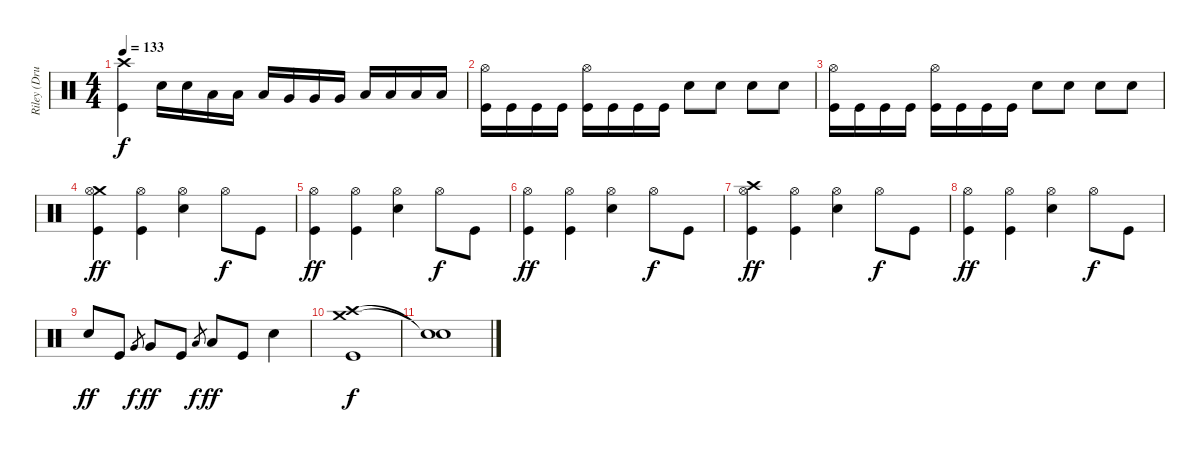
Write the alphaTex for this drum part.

\track ("Riley (Drums)" "Riley (Dru") {instrument percussion}
\staff {score}
\articulation defaults
\ts (4 4)
\tempo 133
\clef neutral
\ks c
("Crash high (hit)" "Kick (hit)").4{dy f} "Electric Snare (hit)".16 "Electric Snare (hit)".16 "Low Tom (hit)".16 "Low Tom (hit)".16 "Low Tom (hit)".16 "Very Low Tom (hit)".16 "Very Low Tom (hit)".16 "Very Low Tom (hit)".16 "Low Floor Tom (hit)".16 "Low Floor Tom (hit)".16 "Low Floor Tom (hit)".16 "Low Floor Tom (hit)".16 |
("Hi-Hat (open)" "Kick (hit)").16 "Kick (hit)".16 "Kick (hit)".16 "Kick (hit)".16 ("Hi-Hat (open)" "Kick (hit)").16 "Kick (hit)".16 "Kick (hit)".16 "Kick (hit)".16 "Electric Snare (hit)".8 "Electric Snare (hit)".8 "Electric Snare (hit)".8 "Electric Snare (hit)".8 |
("Hi-Hat (open)" "Kick (hit)").16 "Kick (hit)".16 "Kick (hit)".16 "Kick (hit)".16 ("Hi-Hat (open)" "Kick (hit)").16 "Kick (hit)".16 "Kick (hit)".16 "Kick (hit)".16 "Electric Snare (hit)".8 "Electric Snare (hit)".8 "Electric Snare (hit)".8 "Electric Snare (hit)".8 |
("Crash medium (hit)" "Hi-Hat (open)" "Kick (hit)").4{dy ff} ("Hi-Hat (open)" "Kick (hit)").4 ("Hi-Hat (open)" "Electric Snare (hit)").4 "Hi-Hat (open)".8{dy f} "Kick (hit)".8 |
("Hi-Hat (open)" "Kick (hit)").4{dy ff} ("Hi-Hat (open)" "Kick (hit)").4 ("Hi-Hat (open)" "Electric Snare (hit)").4 "Hi-Hat (open)".8{dy f} "Kick (hit)".8 |
("Hi-Hat (open)" "Kick (hit)").4{dy ff} ("Hi-Hat (open)" "Kick (hit)").4 ("Hi-Hat (open)" "Electric Snare (hit)").4 "Hi-Hat (open)".8{dy f} "Kick (hit)".8 |
("Crash high (hit)" "Hi-Hat (open)" "Kick (hit)").4{dy ff} ("Hi-Hat (open)" "Kick (hit)").4 ("Hi-Hat (open)" "Electric Snare (hit)").4 "Hi-Hat (open)".8{dy f} "Kick (hit)".8 |
("Hi-Hat (open)" "Kick (hit)").4{dy ff} ("Hi-Hat (open)" "Kick (hit)").4 ("Hi-Hat (open)" "Electric Snare (hit)").4 "Hi-Hat (open)".8{dy f} "Kick (hit)".8 |
"Electric Snare (hit)".8{dy ff} "Kick (hit)".8 "Very Low Tom (hit)".8{gr dy f} "Very Low Tom (hit)".8{dy ff} "Kick (hit)".8 "Low Floor Tom (hit)".8{gr dy f} "Low Floor Tom (hit)".8{dy ff} "Kick (hit)".8 "Electric Snare (hit)".4 |
("Crash high (hit)" "Crash medium (hit)" "Kick (hit)").1{dy f} |
("Snare (hit)"{t} "Snare (hit)"{t}).1
